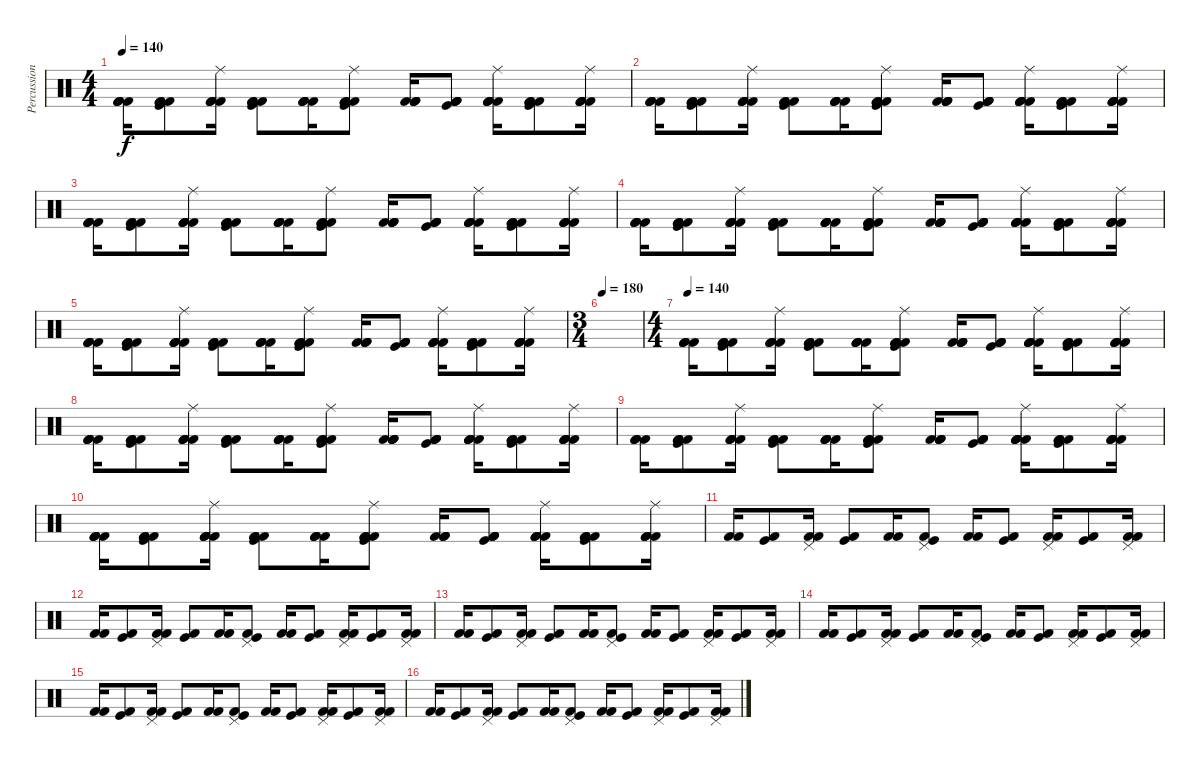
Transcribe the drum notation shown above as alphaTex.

\track ("Percussion" "Percussion") {instrument percussion}
\staff {score}
\articulation defaults
\ts (4 4)
\tempo 140
\clef neutral
\ks c
("Kick (hit) 2" "Kick (hit) 2" "Kick (hit) 2" "Kick (hit) 2").16{dy f} ("Kick (hit) 2" "Kick (hit)" "Kick (hit) 2" "Kick (hit) 2").8 ("Kick (hit) 2" "Kick (hit) 2" "Ride (middle)" "Kick (hit) 2" "Kick (hit) 2").16 ("Kick (hit) 2" "Kick (hit)" "Kick (hit) 2" "Kick (hit) 2").8 ("Kick (hit) 2" "Kick (hit) 2" "Kick (hit) 2" "Kick (hit) 2").16 ("Kick (hit) 2" "Kick (hit)" "Ride (middle)" "Kick (hit) 2" "Kick (hit) 2").8 ("Kick (hit) 2" "Kick (hit) 2" "Kick (hit) 2" "Kick (hit) 2").16 ("Kick (hit) 2" "Kick (hit)" "Kick (hit) 2" "Kick (hit) 2").8 ("Kick (hit) 2" "Kick (hit) 2" "Ride (middle)" "Kick (hit) 2" "Kick (hit) 2").16 ("Kick (hit) 2" "Kick (hit)" "Kick (hit) 2" "Kick (hit) 2").8 ("Kick (hit) 2" "Kick (hit) 2" "Ride (middle)" "Kick (hit) 2" "Kick (hit) 2").16 |
("Kick (hit) 2" "Kick (hit) 2" "Kick (hit) 2" "Kick (hit) 2").16 ("Kick (hit) 2" "Kick (hit)" "Kick (hit) 2" "Kick (hit) 2").8 ("Kick (hit) 2" "Kick (hit) 2" "Ride (middle)" "Kick (hit) 2" "Kick (hit) 2").16 ("Kick (hit) 2" "Kick (hit)" "Kick (hit) 2" "Kick (hit) 2").8 ("Kick (hit) 2" "Kick (hit) 2" "Kick (hit) 2" "Kick (hit) 2").16 ("Kick (hit) 2" "Kick (hit)" "Ride (middle)" "Kick (hit) 2" "Kick (hit) 2").8 ("Kick (hit) 2" "Kick (hit) 2" "Kick (hit) 2" "Kick (hit) 2").16 ("Kick (hit) 2" "Kick (hit)" "Kick (hit) 2" "Kick (hit) 2").8 ("Kick (hit) 2" "Kick (hit) 2" "Ride (middle)" "Kick (hit) 2" "Kick (hit) 2").16 ("Kick (hit) 2" "Kick (hit)" "Kick (hit) 2" "Kick (hit) 2").8 ("Kick (hit) 2" "Kick (hit) 2" "Ride (middle)" "Kick (hit) 2" "Kick (hit) 2").16 |
("Kick (hit) 2" "Kick (hit) 2" "Kick (hit) 2" "Kick (hit) 2").16 ("Kick (hit) 2" "Kick (hit)" "Kick (hit) 2" "Kick (hit) 2").8 ("Kick (hit) 2" "Kick (hit) 2" "Ride (middle)" "Kick (hit) 2" "Kick (hit) 2").16 ("Kick (hit) 2" "Kick (hit)" "Kick (hit) 2" "Kick (hit) 2").8 ("Kick (hit) 2" "Kick (hit) 2" "Kick (hit) 2" "Kick (hit) 2").16 ("Kick (hit) 2" "Kick (hit)" "Ride (middle)" "Kick (hit) 2" "Kick (hit) 2").8 ("Kick (hit) 2" "Kick (hit) 2" "Kick (hit) 2" "Kick (hit) 2").16 ("Kick (hit) 2" "Kick (hit)" "Kick (hit) 2" "Kick (hit) 2").8 ("Kick (hit) 2" "Kick (hit) 2" "Ride (middle)" "Kick (hit) 2" "Kick (hit) 2").16 ("Kick (hit) 2" "Kick (hit)" "Kick (hit) 2" "Kick (hit) 2").8 ("Kick (hit) 2" "Kick (hit) 2" "Ride (middle)" "Kick (hit) 2" "Kick (hit) 2").16 |
("Kick (hit) 2" "Kick (hit) 2" "Kick (hit) 2" "Kick (hit) 2").16 ("Kick (hit) 2" "Kick (hit)" "Kick (hit) 2" "Kick (hit) 2").8 ("Kick (hit) 2" "Kick (hit) 2" "Ride (middle)" "Kick (hit) 2" "Kick (hit) 2").16 ("Kick (hit) 2" "Kick (hit)" "Kick (hit) 2" "Kick (hit) 2").8 ("Kick (hit) 2" "Kick (hit) 2" "Kick (hit) 2" "Kick (hit) 2").16 ("Kick (hit) 2" "Kick (hit)" "Ride (middle)" "Kick (hit) 2" "Kick (hit) 2").8 ("Kick (hit) 2" "Kick (hit) 2" "Kick (hit) 2" "Kick (hit) 2").16 ("Kick (hit) 2" "Kick (hit)" "Kick (hit) 2" "Kick (hit) 2").8 ("Kick (hit) 2" "Kick (hit) 2" "Ride (middle)" "Kick (hit) 2" "Kick (hit) 2").16 ("Kick (hit) 2" "Kick (hit)" "Kick (hit) 2" "Kick (hit) 2").8 ("Kick (hit) 2" "Kick (hit) 2" "Ride (middle)" "Kick (hit) 2" "Kick (hit) 2").16 |
("Kick (hit) 2" "Kick (hit) 2" "Kick (hit) 2" "Kick (hit) 2").16 ("Kick (hit) 2" "Kick (hit)" "Kick (hit) 2" "Kick (hit) 2").8 ("Kick (hit) 2" "Kick (hit) 2" "Ride (middle)" "Kick (hit) 2" "Kick (hit) 2").16 ("Kick (hit) 2" "Kick (hit)" "Kick (hit) 2" "Kick (hit) 2").8 ("Kick (hit) 2" "Kick (hit) 2" "Kick (hit) 2" "Kick (hit) 2").16 ("Kick (hit) 2" "Kick (hit)" "Ride (middle)" "Kick (hit) 2" "Kick (hit) 2").8 ("Kick (hit) 2" "Kick (hit) 2" "Kick (hit) 2" "Kick (hit) 2").16 ("Kick (hit) 2" "Kick (hit)" "Kick (hit) 2" "Kick (hit) 2").8 ("Kick (hit) 2" "Kick (hit) 2" "Ride (middle)" "Kick (hit) 2" "Kick (hit) 2").16 ("Kick (hit) 2" "Kick (hit)" "Kick (hit) 2" "Kick (hit) 2").8 ("Kick (hit) 2" "Kick (hit) 2" "Ride (middle)" "Kick (hit) 2" "Kick (hit) 2").16 |
\ts (3 4)
\tempo 180
|
\ts (4 4)
\tempo 140
("Kick (hit) 2" "Kick (hit) 2" "Kick (hit) 2" "Kick (hit) 2").16 ("Kick (hit) 2" "Kick (hit)" "Kick (hit) 2" "Kick (hit) 2").8 ("Kick (hit) 2" "Kick (hit) 2" "Ride (middle)" "Kick (hit) 2" "Kick (hit) 2").16 ("Kick (hit) 2" "Kick (hit)" "Kick (hit) 2" "Kick (hit) 2").8 ("Kick (hit) 2" "Kick (hit) 2" "Kick (hit) 2" "Kick (hit) 2").16 ("Kick (hit) 2" "Kick (hit)" "Ride (middle)" "Kick (hit) 2" "Kick (hit) 2").8 ("Kick (hit) 2" "Kick (hit) 2" "Kick (hit) 2" "Kick (hit) 2").16 ("Kick (hit) 2" "Kick (hit)" "Kick (hit) 2" "Kick (hit) 2").8 ("Kick (hit) 2" "Kick (hit) 2" "Ride (middle)" "Kick (hit) 2" "Kick (hit) 2").16 ("Kick (hit) 2" "Kick (hit)" "Kick (hit) 2" "Kick (hit) 2").8 ("Kick (hit) 2" "Kick (hit) 2" "Ride (middle)" "Kick (hit) 2" "Kick (hit) 2").16 |
("Kick (hit) 2" "Kick (hit) 2" "Kick (hit) 2" "Kick (hit) 2").16 ("Kick (hit) 2" "Kick (hit)" "Kick (hit) 2" "Kick (hit) 2").8 ("Kick (hit) 2" "Kick (hit) 2" "Ride (middle)" "Kick (hit) 2" "Kick (hit) 2").16 ("Kick (hit) 2" "Kick (hit)" "Kick (hit) 2" "Kick (hit) 2").8 ("Kick (hit) 2" "Kick (hit) 2" "Kick (hit) 2" "Kick (hit) 2").16 ("Kick (hit) 2" "Kick (hit)" "Ride (middle)" "Kick (hit) 2" "Kick (hit) 2").8 ("Kick (hit) 2" "Kick (hit) 2" "Kick (hit) 2" "Kick (hit) 2").16 ("Kick (hit) 2" "Kick (hit)" "Kick (hit) 2" "Kick (hit) 2").8 ("Kick (hit) 2" "Kick (hit) 2" "Ride (middle)" "Kick (hit) 2" "Kick (hit) 2").16 ("Kick (hit) 2" "Kick (hit)" "Kick (hit) 2" "Kick (hit) 2").8 ("Kick (hit) 2" "Kick (hit) 2" "Ride (middle)" "Kick (hit) 2" "Kick (hit) 2").16 |
("Kick (hit) 2" "Kick (hit) 2" "Kick (hit) 2" "Kick (hit) 2").16 ("Kick (hit) 2" "Kick (hit)" "Kick (hit) 2" "Kick (hit) 2").8 ("Kick (hit) 2" "Kick (hit) 2" "Ride (middle)" "Kick (hit) 2" "Kick (hit) 2").16 ("Kick (hit) 2" "Kick (hit)" "Kick (hit) 2" "Kick (hit) 2").8 ("Kick (hit) 2" "Kick (hit) 2" "Kick (hit) 2" "Kick (hit) 2").16 ("Kick (hit) 2" "Kick (hit)" "Ride (middle)" "Kick (hit) 2" "Kick (hit) 2").8 ("Kick (hit) 2" "Kick (hit) 2" "Kick (hit) 2" "Kick (hit) 2").16 ("Kick (hit) 2" "Kick (hit)" "Kick (hit) 2" "Kick (hit) 2").8 ("Kick (hit) 2" "Kick (hit) 2" "Ride (middle)" "Kick (hit) 2" "Kick (hit) 2").16 ("Kick (hit) 2" "Kick (hit)" "Kick (hit) 2" "Kick (hit) 2").8 ("Kick (hit) 2" "Kick (hit) 2" "Ride (middle)" "Kick (hit) 2" "Kick (hit) 2").16 |
("Kick (hit) 2" "Kick (hit) 2" "Kick (hit) 2" "Kick (hit) 2").16 ("Kick (hit) 2" "Kick (hit)" "Kick (hit) 2" "Kick (hit) 2").8 ("Kick (hit) 2" "Kick (hit) 2" "Ride (middle)" "Kick (hit) 2" "Kick (hit) 2").16 ("Kick (hit) 2" "Kick (hit)" "Kick (hit) 2" "Kick (hit) 2").8 ("Kick (hit) 2" "Kick (hit) 2" "Kick (hit) 2" "Kick (hit) 2").16 ("Kick (hit) 2" "Kick (hit)" "Ride (middle)" "Kick (hit) 2" "Kick (hit) 2").8 ("Kick (hit) 2" "Kick (hit) 2" "Kick (hit) 2" "Kick (hit) 2").16 ("Kick (hit) 2" "Kick (hit)" "Kick (hit) 2" "Kick (hit) 2").8 ("Kick (hit) 2" "Kick (hit) 2" "Ride (middle)" "Kick (hit) 2" "Kick (hit) 2").16 ("Kick (hit) 2" "Kick (hit)" "Kick (hit) 2" "Kick (hit) 2").8 ("Kick (hit) 2" "Kick (hit) 2" "Ride (middle)" "Kick (hit) 2" "Kick (hit) 2").16 |
("Kick (hit) 2" "Kick (hit) 2").16 ("Kick (hit) 2" "Kick (hit)").8 ("Kick (hit) 2" "Kick (hit) 2" "Pedal Hi-Hat (hit)").16 ("Kick (hit) 2" "Kick (hit)").8 ("Kick (hit) 2" "Kick (hit) 2").16 ("Kick (hit) 2" "Kick (hit)" "Pedal Hi-Hat (hit)").8 ("Kick (hit) 2" "Kick (hit) 2").16 ("Kick (hit) 2" "Kick (hit)").8 ("Kick (hit) 2" "Kick (hit) 2" "Pedal Hi-Hat (hit)").16 ("Kick (hit) 2" "Kick (hit)").8 ("Kick (hit) 2" "Kick (hit) 2" "Pedal Hi-Hat (hit)").16 |
("Kick (hit) 2" "Kick (hit) 2").16 ("Kick (hit) 2" "Kick (hit)").8 ("Kick (hit) 2" "Kick (hit) 2" "Pedal Hi-Hat (hit)").16 ("Kick (hit) 2" "Kick (hit)").8 ("Kick (hit) 2" "Kick (hit) 2").16 ("Kick (hit) 2" "Kick (hit)" "Pedal Hi-Hat (hit)").8 ("Kick (hit) 2" "Kick (hit) 2").16 ("Kick (hit) 2" "Kick (hit)").8 ("Kick (hit) 2" "Kick (hit) 2" "Pedal Hi-Hat (hit)").16 ("Kick (hit) 2" "Kick (hit)").8 ("Kick (hit) 2" "Kick (hit) 2" "Pedal Hi-Hat (hit)").16 |
("Kick (hit) 2" "Kick (hit) 2").16 ("Kick (hit) 2" "Kick (hit)").8 ("Kick (hit) 2" "Kick (hit) 2" "Pedal Hi-Hat (hit)").16 ("Kick (hit) 2" "Kick (hit)").8 ("Kick (hit) 2" "Kick (hit) 2").16 ("Kick (hit) 2" "Kick (hit)" "Pedal Hi-Hat (hit)").8 ("Kick (hit) 2" "Kick (hit) 2").16 ("Kick (hit) 2" "Kick (hit)").8 ("Kick (hit) 2" "Kick (hit) 2" "Pedal Hi-Hat (hit)").16 ("Kick (hit) 2" "Kick (hit)").8 ("Kick (hit) 2" "Kick (hit) 2" "Pedal Hi-Hat (hit)").16 |
("Kick (hit) 2" "Kick (hit) 2").16 ("Kick (hit) 2" "Kick (hit)").8 ("Kick (hit) 2" "Kick (hit) 2" "Pedal Hi-Hat (hit)").16 ("Kick (hit) 2" "Kick (hit)").8 ("Kick (hit) 2" "Kick (hit) 2").16 ("Kick (hit) 2" "Kick (hit)" "Pedal Hi-Hat (hit)").8 ("Kick (hit) 2" "Kick (hit) 2").16 ("Kick (hit) 2" "Kick (hit)").8 ("Kick (hit) 2" "Kick (hit) 2" "Pedal Hi-Hat (hit)").16 ("Kick (hit) 2" "Kick (hit)").8 ("Kick (hit) 2" "Kick (hit) 2" "Pedal Hi-Hat (hit)").16 |
("Kick (hit) 2" "Kick (hit) 2").16 ("Kick (hit) 2" "Kick (hit)").8 ("Kick (hit) 2" "Kick (hit) 2" "Pedal Hi-Hat (hit)").16 ("Kick (hit) 2" "Kick (hit)").8 ("Kick (hit) 2" "Kick (hit) 2").16 ("Kick (hit) 2" "Kick (hit)" "Pedal Hi-Hat (hit)").8 ("Kick (hit) 2" "Kick (hit) 2").16 ("Kick (hit) 2" "Kick (hit)").8 ("Kick (hit) 2" "Kick (hit) 2" "Pedal Hi-Hat (hit)").16 ("Kick (hit) 2" "Kick (hit)").8 ("Kick (hit) 2" "Kick (hit) 2" "Pedal Hi-Hat (hit)").16 |
("Kick (hit) 2" "Kick (hit) 2").16 ("Kick (hit) 2" "Kick (hit)").8 ("Kick (hit) 2" "Kick (hit) 2" "Pedal Hi-Hat (hit)").16 ("Kick (hit) 2" "Kick (hit)").8 ("Kick (hit) 2" "Kick (hit) 2").16 ("Kick (hit) 2" "Kick (hit)" "Pedal Hi-Hat (hit)").8 ("Kick (hit) 2" "Kick (hit) 2").16 ("Kick (hit) 2" "Kick (hit)").8 ("Kick (hit) 2" "Kick (hit) 2" "Pedal Hi-Hat (hit)").16 ("Kick (hit) 2" "Kick (hit)").8 ("Kick (hit) 2" "Kick (hit) 2" "Pedal Hi-Hat (hit)").16
